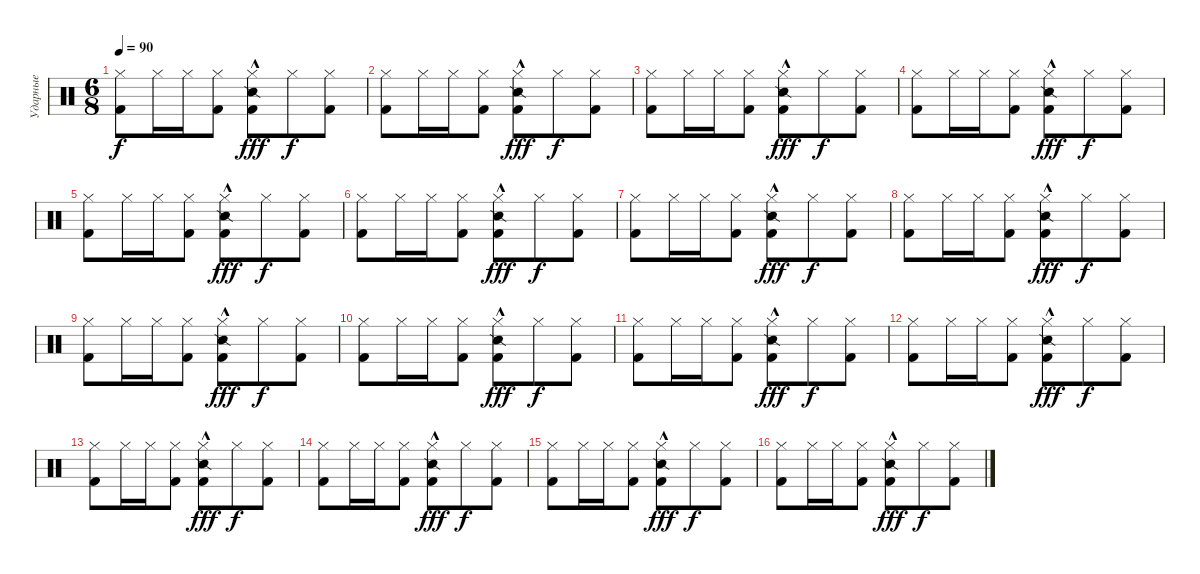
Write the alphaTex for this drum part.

\track ("Ударные" "Ударные") {instrument percussion}
\staff {score}
\articulation defaults
\ts (6 8)
\tempo 90
\clef neutral
\ks aminor
("Hi-Hat (closed)" "Kick (hit) 2").8{dy f} "Hi-Hat (closed)".16 "Hi-Hat (closed)".16 ("Hi-Hat (closed)" "Kick (hit) 2").8 ("Hi-Hat (closed)" "Snare (side stick) 2"{hac} "Kick (hit) 2").8{dy fff} "Hi-Hat (closed)".8{dy f} ("Hi-Hat (closed)" "Kick (hit) 2").8 |
("Hi-Hat (closed)" "Kick (hit) 2").8 "Hi-Hat (closed)".16 "Hi-Hat (closed)".16 ("Hi-Hat (closed)" "Kick (hit) 2").8 ("Hi-Hat (closed)" "Snare (side stick) 2"{hac} "Kick (hit) 2").8{dy fff} "Hi-Hat (closed)".8{dy f} ("Hi-Hat (closed)" "Kick (hit) 2").8 |
("Hi-Hat (closed)" "Kick (hit) 2").8 "Hi-Hat (closed)".16 "Hi-Hat (closed)".16 ("Hi-Hat (closed)" "Kick (hit) 2").8 ("Hi-Hat (closed)" "Snare (side stick) 2"{hac} "Kick (hit) 2").8{dy fff} "Hi-Hat (closed)".8{dy f} ("Hi-Hat (closed)" "Kick (hit) 2").8 |
("Hi-Hat (closed)" "Kick (hit) 2").8 "Hi-Hat (closed)".16 "Hi-Hat (closed)".16 ("Hi-Hat (closed)" "Kick (hit) 2").8 ("Hi-Hat (closed)" "Snare (side stick) 2"{hac} "Kick (hit) 2").8{dy fff} "Hi-Hat (closed)".8{dy f} ("Hi-Hat (closed)" "Kick (hit) 2").8 |
("Hi-Hat (closed)" "Kick (hit) 2").8 "Hi-Hat (closed)".16 "Hi-Hat (closed)".16 ("Hi-Hat (closed)" "Kick (hit) 2").8 ("Hi-Hat (closed)" "Snare (side stick) 2"{hac} "Kick (hit) 2").8{dy fff} "Hi-Hat (closed)".8{dy f} ("Hi-Hat (closed)" "Kick (hit) 2").8 |
("Hi-Hat (closed)" "Kick (hit) 2").8 "Hi-Hat (closed)".16 "Hi-Hat (closed)".16 ("Hi-Hat (closed)" "Kick (hit) 2").8 ("Hi-Hat (closed)" "Snare (side stick) 2"{hac} "Kick (hit) 2").8{dy fff} "Hi-Hat (closed)".8{dy f} ("Hi-Hat (closed)" "Kick (hit) 2").8 |
("Hi-Hat (closed)" "Kick (hit) 2").8 "Hi-Hat (closed)".16 "Hi-Hat (closed)".16 ("Hi-Hat (closed)" "Kick (hit) 2").8 ("Hi-Hat (closed)" "Snare (side stick) 2"{hac} "Kick (hit) 2").8{dy fff} "Hi-Hat (closed)".8{dy f} ("Hi-Hat (closed)" "Kick (hit) 2").8 |
("Hi-Hat (closed)" "Kick (hit) 2").8 "Hi-Hat (closed)".16 "Hi-Hat (closed)".16 ("Hi-Hat (closed)" "Kick (hit) 2").8 ("Hi-Hat (closed)" "Snare (side stick) 2"{hac} "Kick (hit) 2").8{dy fff} "Hi-Hat (closed)".8{dy f} ("Hi-Hat (closed)" "Kick (hit) 2").8 |
("Hi-Hat (closed)" "Kick (hit) 2").8 "Hi-Hat (closed)".16 "Hi-Hat (closed)".16 ("Hi-Hat (closed)" "Kick (hit) 2").8 ("Hi-Hat (closed)" "Snare (side stick) 2"{hac} "Kick (hit) 2").8{dy fff} "Hi-Hat (closed)".8{dy f} ("Hi-Hat (closed)" "Kick (hit) 2").8 |
("Hi-Hat (closed)" "Kick (hit) 2").8 "Hi-Hat (closed)".16 "Hi-Hat (closed)".16 ("Hi-Hat (closed)" "Kick (hit) 2").8 ("Hi-Hat (closed)" "Snare (side stick) 2"{hac} "Kick (hit) 2").8{dy fff} "Hi-Hat (closed)".8{dy f} ("Hi-Hat (closed)" "Kick (hit) 2").8 |
("Hi-Hat (closed)" "Kick (hit) 2").8 "Hi-Hat (closed)".16 "Hi-Hat (closed)".16 ("Hi-Hat (closed)" "Kick (hit) 2").8 ("Hi-Hat (closed)" "Snare (side stick) 2"{hac} "Kick (hit) 2").8{dy fff} "Hi-Hat (closed)".8{dy f} ("Hi-Hat (closed)" "Kick (hit) 2").8 |
("Hi-Hat (closed)" "Kick (hit) 2").8 "Hi-Hat (closed)".16 "Hi-Hat (closed)".16 ("Hi-Hat (closed)" "Kick (hit) 2").8 ("Hi-Hat (closed)" "Snare (side stick) 2"{hac} "Kick (hit) 2").8{dy fff} "Hi-Hat (closed)".8{dy f} ("Hi-Hat (closed)" "Kick (hit) 2").8 |
("Hi-Hat (closed)" "Kick (hit) 2").8 "Hi-Hat (closed)".16 "Hi-Hat (closed)".16 ("Hi-Hat (closed)" "Kick (hit) 2").8 ("Hi-Hat (closed)" "Snare (side stick) 2"{hac} "Kick (hit) 2").8{dy fff} "Hi-Hat (closed)".8{dy f} ("Hi-Hat (closed)" "Kick (hit) 2").8 |
("Hi-Hat (closed)" "Kick (hit) 2").8 "Hi-Hat (closed)".16 "Hi-Hat (closed)".16 ("Hi-Hat (closed)" "Kick (hit) 2").8 ("Hi-Hat (closed)" "Snare (side stick) 2"{hac} "Kick (hit) 2").8{dy fff} "Hi-Hat (closed)".8{dy f} ("Hi-Hat (closed)" "Kick (hit) 2").8 |
("Hi-Hat (closed)" "Kick (hit) 2").8 "Hi-Hat (closed)".16 "Hi-Hat (closed)".16 ("Hi-Hat (closed)" "Kick (hit) 2").8 ("Hi-Hat (closed)" "Snare (side stick) 2"{hac} "Kick (hit) 2").8{dy fff} "Hi-Hat (closed)".8{dy f} ("Hi-Hat (closed)" "Kick (hit) 2").8 |
("Hi-Hat (closed)" "Kick (hit) 2").8 "Hi-Hat (closed)".16 "Hi-Hat (closed)".16 ("Hi-Hat (closed)" "Kick (hit) 2").8 ("Hi-Hat (closed)" "Snare (side stick) 2"{hac} "Kick (hit) 2").8{dy fff} "Hi-Hat (closed)".8{dy f} ("Hi-Hat (closed)" "Kick (hit) 2").8
